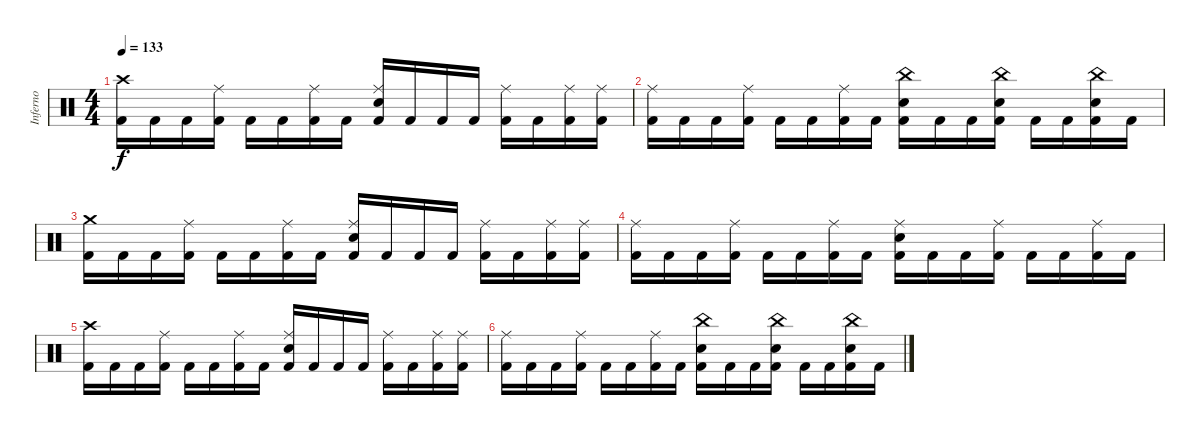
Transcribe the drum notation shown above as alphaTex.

\track ("Inferno" "Inferno") {instrument percussion}
\staff {score}
\articulation defaults
\ts (4 4)
\tempo 133
\clef neutral
\ks c
("Crash high (hit)" "Kick (hit) 2").16{dy f} "Kick (hit) 2".16 "Kick (hit) 2".16 ("Ride (middle)" "Kick (hit) 2").16 "Kick (hit) 2".16 "Kick (hit) 2".16 ("Ride (middle)" "Kick (hit) 2").16 "Kick (hit) 2".16 ("Ride (middle)" "Snare (hit) 2" "Kick (hit) 2").16 "Kick (hit) 2".16 "Kick (hit) 2".16 "Kick (hit) 2".16 ("Ride (middle)" "Kick (hit) 2").16 "Kick (hit) 2".16 ("Ride (middle)" "Kick (hit) 2").16 ("Ride (middle)" "Kick (hit) 2").16 |
("Ride (middle)" "Kick (hit) 2").16 "Kick (hit) 2".16 "Kick (hit) 2".16 ("Ride (middle)" "Kick (hit) 2").16 "Kick (hit) 2".16 "Kick (hit) 2".16 ("Ride (middle)" "Kick (hit) 2").16 "Kick (hit) 2".16 ("China (hit)" "Snare (hit) 2" "Kick (hit) 2").16 "Kick (hit) 2".16 "Kick (hit) 2".16 ("China (hit)" "Snare (hit) 2" "Kick (hit) 2").16 "Kick (hit) 2".16 "Kick (hit) 2".16 ("China (hit)" "Snare (hit) 2" "Kick (hit) 2").16 "Kick (hit) 2".16 |
("Crash medium (hit)" "Kick (hit) 2").16 "Kick (hit) 2".16 "Kick (hit) 2".16 ("Ride (middle)" "Kick (hit) 2").16 "Kick (hit) 2".16 "Kick (hit) 2".16 ("Ride (middle)" "Kick (hit) 2").16 "Kick (hit) 2".16 ("Ride (middle)" "Snare (hit) 2" "Kick (hit) 2").16 "Kick (hit) 2".16 "Kick (hit) 2".16 "Kick (hit) 2".16 ("Ride (middle)" "Kick (hit) 2").16 "Kick (hit) 2".16 ("Ride (middle)" "Kick (hit) 2").16 ("Ride (middle)" "Kick (hit) 2").16 |
("Ride (middle)" "Kick (hit) 2").16 "Kick (hit) 2".16 "Kick (hit) 2".16 ("Ride (middle)" "Kick (hit) 2").16 "Kick (hit) 2".16 "Kick (hit) 2".16 ("Ride (middle)" "Kick (hit) 2").16 "Kick (hit) 2".16 ("Ride (middle)" "Snare (hit) 2" "Kick (hit) 2").16 "Kick (hit) 2".16 "Kick (hit) 2".16 ("Ride (middle)" "Kick (hit) 2").16 "Kick (hit) 2".16 "Kick (hit) 2".16 ("Ride (middle)" "Kick (hit) 2").16 "Kick (hit) 2".16 |
("Crash high (hit)" "Kick (hit) 2").16 "Kick (hit) 2".16 "Kick (hit) 2".16 ("Ride (middle)" "Kick (hit) 2").16 "Kick (hit) 2".16 "Kick (hit) 2".16 ("Ride (middle)" "Kick (hit) 2").16 "Kick (hit) 2".16 ("Ride (middle)" "Snare (hit) 2" "Kick (hit) 2").16 "Kick (hit) 2".16 "Kick (hit) 2".16 "Kick (hit) 2".16 ("Ride (middle)" "Kick (hit) 2").16 "Kick (hit) 2".16 ("Ride (middle)" "Kick (hit) 2").16 ("Ride (middle)" "Kick (hit) 2").16 |
("Ride (middle)" "Kick (hit) 2").16 "Kick (hit) 2".16 "Kick (hit) 2".16 ("Ride (middle)" "Kick (hit) 2").16 "Kick (hit) 2".16 "Kick (hit) 2".16 ("Ride (middle)" "Kick (hit) 2").16 "Kick (hit) 2".16 ("China (hit)" "Snare (hit) 2" "Kick (hit) 2").16 "Kick (hit) 2".16 "Kick (hit) 2".16 ("China (hit)" "Snare (hit) 2" "Kick (hit) 2").16 "Kick (hit) 2".16 "Kick (hit) 2".16 ("China (hit)" "Snare (hit) 2" "Kick (hit) 2").16 "Kick (hit) 2".16
